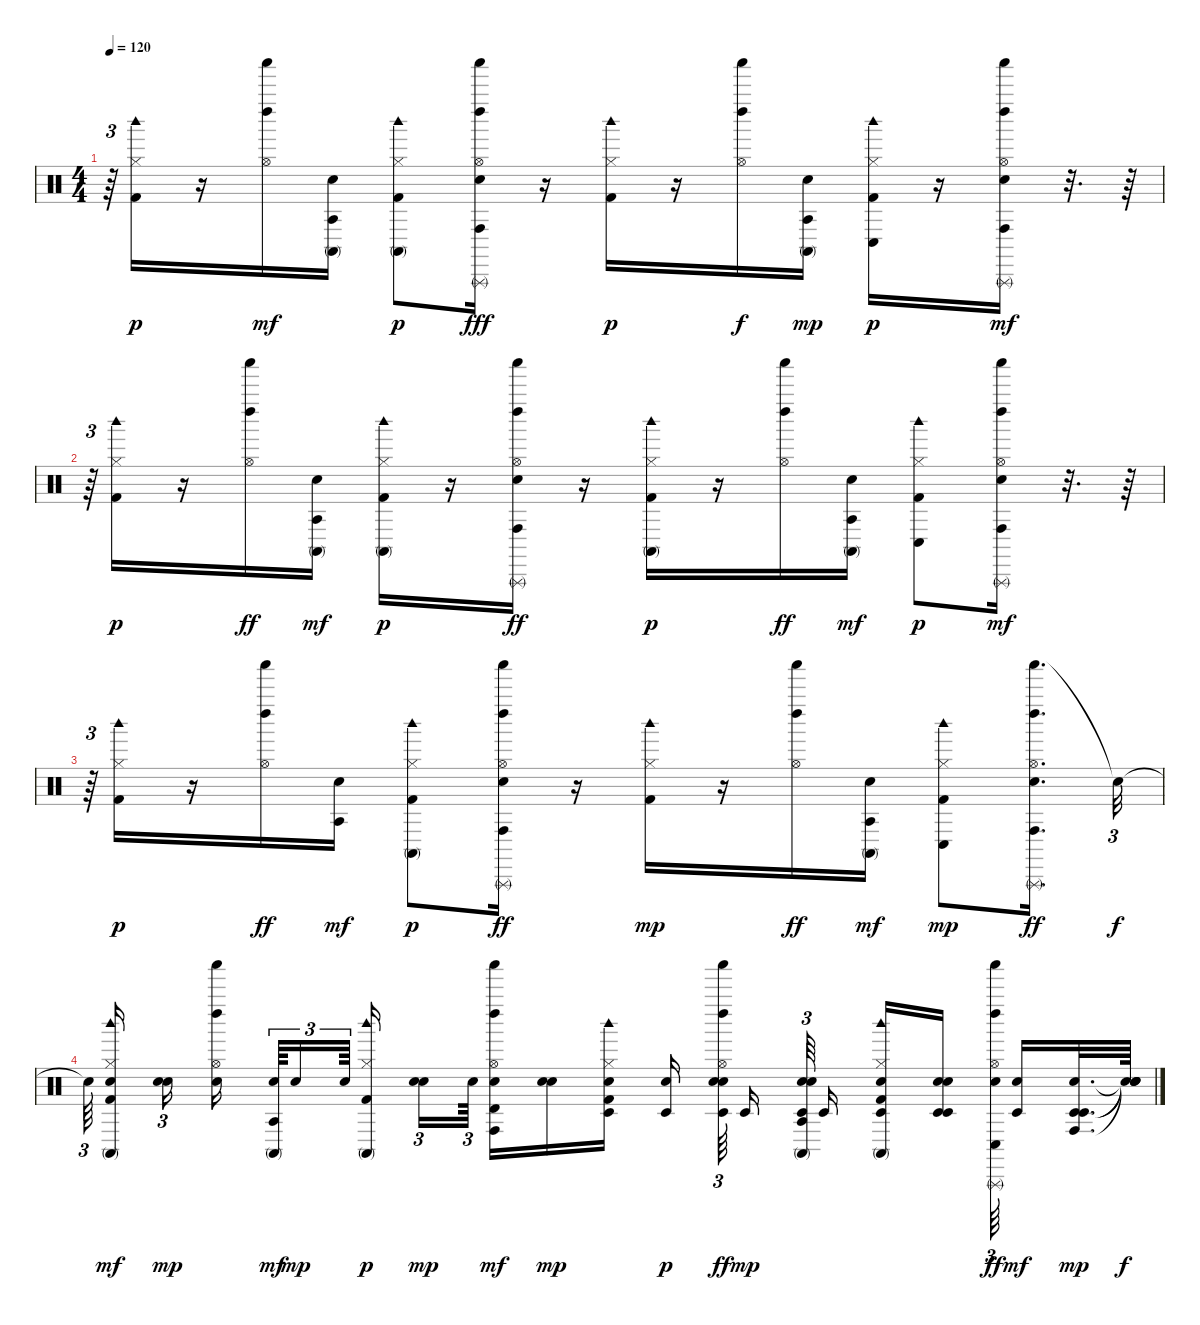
\track "" {instrument percussion}
\staff {score}
\articulation defaults
\ts (4 4)
\tempo 120
\clef neutral
\ks c
r.64{tu (3 2) dy mf} ("Kick (hit) 2" "Hi-Hat (closed)" "Woodblock high (hit)").16{dy p} r.16 ("Shaker (hit)" "Left Maraca (hit)" "Hi-Hat (open)").16{dy mf} ("Electric Snare (hit)" "Conga high (mute)" "Agogo tow (hit)").16 ("Kick (hit) 2" "Conga high (mute)" "Hi-Hat (closed)" "Woodblock high (hit)").8{dy p} ("Shaker (hit)" "Left Maraca (hit)" "Electric Snare (hit)" "Conga high (hit)" "Hi-Hat (open)" "Triangle (rnute)").16{dy fff} r.16 ("Kick (hit) 2" "Hi-Hat (closed)" "Woodblock high (hit)").16{dy p} r.16 ("Shaker (hit)" "Left Maraca (hit)" "Hi-Hat (open)").16{dy f} ("Electric Snare (hit)" "Conga high (mute)" "Agogo tow (hit)").16{dy mp} ("Kick (hit) 2" "Conga low (hit)" "Hi-Hat (closed)" "Woodblock high (hit)").16{dy p} r.16 ("Shaker (hit)" "Left Maraca (hit)" "Electric Snare (hit)" "Conga high (hit)" "Hi-Hat (open)" "Triangle (rnute)").16{dy mf} r.32{d} r.64 |
r.64{tu (3 2)} ("Kick (hit) 2" "Hi-Hat (closed)" "Woodblock high (hit)").16{dy p} r.16 ("Shaker (hit)" "Left Maraca (hit)" "Hi-Hat (open)").16{dy ff} ("Electric Snare (hit)" "Conga high (mute)" "Agogo tow (hit)").16{dy mf} ("Kick (hit) 2" "Conga high (mute)" "Hi-Hat (closed)" "Woodblock high (hit)").16{dy p} r.16 ("Shaker (hit)" "Left Maraca (hit)" "Electric Snare (hit)" "Conga high (hit)" "Hi-Hat (open)" "Triangle (rnute)").16{dy ff} r.16 ("Kick (hit) 2" "Conga high (mute)" "Hi-Hat (closed)" "Woodblock high (hit)").16{dy p} r.16 ("Shaker (hit)" "Left Maraca (hit)" "Hi-Hat (open)").16{dy ff} ("Electric Snare (hit)" "Conga high (mute)" "Agogo tow (hit)").16{dy mf} ("Kick (hit) 2" "Conga low (hit)" "Hi-Hat (closed)" "Woodblock high (hit)").8{dy p} ("Shaker (hit)" "Left Maraca (hit)" "Electric Snare (hit)" "Conga high (hit)" "Hi-Hat (open)" "Triangle (rnute)").16{dy mf} r.32{d} r.64 |
r.64{tu (3 2)} ("Kick (hit) 2" "Hi-Hat (closed)" "Woodblock high (hit)").16{dy p} r.16 ("Shaker (hit)" "Left Maraca (hit)" "Hi-Hat (open)").16{dy ff} ("Electric Snare (hit)" "Agogo tow (hit)").16{dy mf} ("Kick (hit) 2" "Conga high (mute)" "Hi-Hat (closed)" "Woodblock high (hit)").8{dy p} ("Shaker (hit)" "Left Maraca (hit)" "Electric Snare (hit)" "Conga high (hit)" "Hi-Hat (open)" "Triangle (rnute)").16{dy ff} r.16 ("Kick (hit) 2" "Hi-Hat (closed)" "Woodblock high (hit)").16{dy mp} r.16 ("Shaker (hit)" "Left Maraca (hit)" "Hi-Hat (open)").16{dy ff} ("Electric Snare (hit)" "Conga high (mute)" "Agogo tow (hit)").16{dy mf} ("Kick (hit) 2" "Conga low (hit)" "Hi-Hat (closed)" "Woodblock high (hit)").8{dy mp} ("Shaker (hit)" "Left Maraca (hit)" "Electric Snare (hit)" "Conga high (hit)" "Hi-Hat (open)" "Triangle (rnute)").16{d dy ff} "Snare (hit)"{t}.32{tu (3 2) dy f} |
"Snare (hit)"{t}.64{tu (3 2) beam splitsecondary} ("Kick (hit) 2" "Conga high (mute)" "Hi-Hat (closed)" "Woodblock high (hit)" "Snare (hit) 2").16{dy mf beam splitsecondary} ("Snare (hit) 2" "Snare (hit) 2").16{tu (3 2) dy mp beam splitsecondary} ("Snare (hit) 2" "Shaker (hit)" "Left Maraca (hit)" "Hi-Hat (open)").16{beam splitsecondary} ("Snare (hit) 2" "Conga high (mute)" "Agogo tow (hit)").64{tu (3 2) dy mf} "Snare (hit) 2".16{tu (3 2) dy mp} "Snare (hit) 2".64{tu (3 2) beam splitsecondary} ("Kick (hit) 2" "Conga high (mute)" "Hi-Hat (closed)" "Woodblock high (hit)").16{dy p} ("Snare (hit) 2" "Snare (hit) 2").16{tu (3 2) dy mp} "Snare (hit) 2".64{tu (3 2) beam splitsecondary} ("Shaker (hit)" "Left Maraca (hit)" "Conga high (hit)" "Electric Snare (hit)" "Hi-Hat (open)" "Timbale high (hit)").16{dy mf} ("Snare (hit) 2" "Snare (hit) 2").16{dy mp} ("Snare (hit) 2" "Kick (hit) 2" "Hi-Hat (closed)" "Woodblock high (hit)" "Timbale low (hit)").16 ("Snare (hit) 2" "Timbale low (hit)").16{dy p beam splitsecondary} ("Snare (hit) 2" "Timbale low (hit)" "Snare (hit) 2" "Shaker (hit)" "Left Maraca (hit)" "Hi-Hat (open)").64{tu (3 2) dy ff beam splitsecondary} "Timbale low (hit)".16{dy mp beam splitsecondary} ("Snare (hit) 2" "Timbale low (hit)" "Conga high (mute)" "Agogo tow (hit)" "Snare (hit) 2").64{tu (3 2)} "Timbale low (hit)".16 ("Snare (hit) 2" "Kick (hit) 2" "Conga high (mute)" "Hi-Hat (closed)" "Woodblock high (hit)" "Timbale low (hit)").16 ("Snare (hit) 2" "Timbale low (hit)" "Snare (hit) 2" "Timbale low (hit)").16{beam splitsecondary} ("Snare (hit) 2" "Shaker (hit)" "Left Maraca (hit)" "Conga low (hit)" "Hi-Hat (open)" "Triangle (rnute)").64{tu (3 2) dy ff beam splitsecondary} ("Timbale low (hit)" "Snare (hit) 2").16{dy mf} ("Timbale low (hit)" "Conga high (hit)" "Snare (hit) 2" "Timbale low (hit)").32{d dy mp} ("Snare (hit)"{t} "Snare (hit)"{t} "Snare (hit)"{t} "Snare (hit)"{t}).64{dy f}
